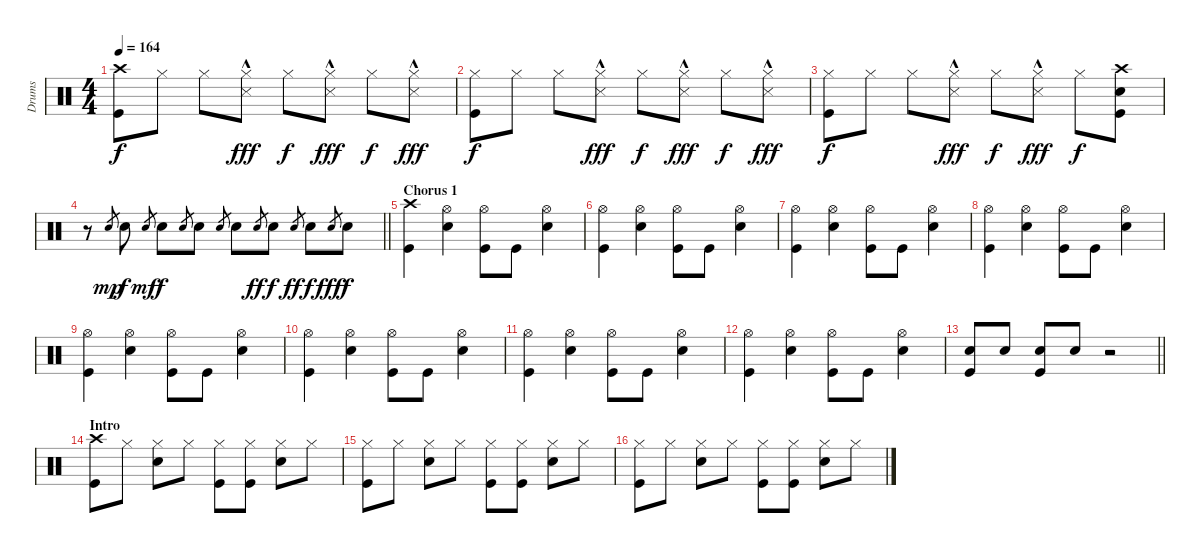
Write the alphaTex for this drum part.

\track ("Drums" "Drums") {instrument percussion}
\staff {score}
\articulation defaults
\ts (4 4)
\tempo 164
\clef neutral
\ks c
("Crash high (hit)" "Kick (hit)").8{dy f} "Hi-Hat (closed)".8 "Hi-Hat (closed)".8 ("Hi-Hat (closed)" "Snare (side stick) 3"{hac}).8{dy fff} "Hi-Hat (closed)".8{dy f} ("Hi-Hat (closed)" "Snare (side stick) 3"{hac}).8{dy fff} "Hi-Hat (closed)".8{dy f} ("Hi-Hat (closed)" "Snare (side stick) 3"{hac}).8{dy fff} |
("Hi-Hat (closed)" "Kick (hit)").8{dy f} "Hi-Hat (closed)".8 "Hi-Hat (closed)".8 ("Hi-Hat (closed)" "Snare (side stick) 3"{hac}).8{dy fff} "Hi-Hat (closed)".8{dy f} ("Hi-Hat (closed)" "Snare (side stick) 3"{hac}).8{dy fff} "Hi-Hat (closed)".8{dy f} ("Hi-Hat (closed)" "Snare (side stick) 3"{hac}).8{dy fff} |
("Hi-Hat (closed)" "Kick (hit)").8{dy f} "Hi-Hat (closed)".8 "Hi-Hat (closed)".8 ("Hi-Hat (closed)" "Snare (side stick) 3"{hac}).8{dy fff} "Hi-Hat (closed)".8{dy f} ("Hi-Hat (closed)" "Snare (side stick) 3"{hac}).8{dy fff} "Hi-Hat (closed)".8{dy f} ("Kick (hit)" "Snare (hit) 2" "Crash high (hit)").8 |
\barLineRight lightlight
r.8 "Snare (hit) 2".8{gr dy mp} "Snare (hit) 2".8{dy f} "Snare (hit) 2".8{gr dy mf} "Snare (hit) 2".8{dy f} "Snare (hit) 2".8{gr} "Snare (hit) 2".8 "Snare (hit) 2".8{gr} "Snare (hit) 2".8 "Snare (hit) 2".8{gr dy ff} "Snare (hit) 2".8{dy f} "Snare (hit) 2".8{gr dy ff} "Snare (hit) 2".8{dy f} "Snare (hit) 2".8{gr dy fff} "Snare (hit) 2".8{dy f} |
\section ("" "Chorus 1")
("Crash high (hit)" "Kick (hit)").4 ("Hi-Hat (open)" "Snare (hit) 2").4 ("Kick (hit)" "Hi-Hat (open)").8 "Kick (hit)".8 ("Hi-Hat (open)" "Snare (hit) 2").4 |
("Hi-Hat (open)" "Kick (hit)").4 ("Hi-Hat (open)" "Snare (hit) 2").4 ("Kick (hit)" "Hi-Hat (open)").8 "Kick (hit)".8 ("Hi-Hat (open)" "Snare (hit) 2").4 |
("Hi-Hat (open)" "Kick (hit)").4 ("Hi-Hat (open)" "Snare (hit) 2").4 ("Kick (hit)" "Hi-Hat (open)").8 "Kick (hit)".8 ("Hi-Hat (open)" "Snare (hit) 2").4 |
("Hi-Hat (open)" "Kick (hit)").4 ("Hi-Hat (open)" "Snare (hit) 2").4 ("Kick (hit)" "Hi-Hat (open)").8 "Kick (hit)".8 ("Hi-Hat (open)" "Snare (hit) 2").4 |
("Hi-Hat (open)" "Kick (hit)").4 ("Hi-Hat (open)" "Snare (hit) 2").4 ("Kick (hit)" "Hi-Hat (open)").8 "Kick (hit)".8 ("Hi-Hat (open)" "Snare (hit) 2").4 |
("Hi-Hat (open)" "Kick (hit)").4 ("Hi-Hat (open)" "Snare (hit) 2").4 ("Kick (hit)" "Hi-Hat (open)").8 "Kick (hit)".8 ("Hi-Hat (open)" "Snare (hit) 2").4 |
("Hi-Hat (open)" "Kick (hit)").4 ("Hi-Hat (open)" "Snare (hit) 2").4 ("Kick (hit)" "Hi-Hat (open)").8 "Kick (hit)".8 ("Hi-Hat (open)" "Snare (hit) 2").4 |
("Hi-Hat (open)" "Kick (hit)").4 ("Hi-Hat (open)" "Snare (hit) 2").4 ("Kick (hit)" "Hi-Hat (open)").8 "Kick (hit)".8 ("Hi-Hat (open)" "Snare (hit) 2").4 |
\barLineRight lightlight
("Snare (hit) 2" "Kick (hit)").8 "Snare (hit) 2".8 ("Snare (hit) 2" "Kick (hit)").8 "Snare (hit) 2".8 r.2 |
\section ("" "Intro")
("Crash high (hit)" "Kick (hit)").8 "Hi-Hat (closed)".8 ("Hi-Hat (closed)" "Snare (hit) 2").8 "Hi-Hat (closed)".8 ("Hi-Hat (closed)" "Kick (hit)").8 ("Hi-Hat (closed)" "Kick (hit)").8 ("Hi-Hat (closed)" "Snare (hit) 2").8 "Hi-Hat (closed)".8 |
("Hi-Hat (closed)" "Kick (hit)").8 "Hi-Hat (closed)".8 ("Hi-Hat (closed)" "Snare (hit) 2").8 "Hi-Hat (closed)".8 ("Hi-Hat (closed)" "Kick (hit)").8 ("Hi-Hat (closed)" "Kick (hit)").8 ("Hi-Hat (closed)" "Snare (hit) 2").8 "Hi-Hat (closed)".8 |
("Hi-Hat (closed)" "Kick (hit)").8 "Hi-Hat (closed)".8 ("Hi-Hat (closed)" "Snare (hit) 2").8 "Hi-Hat (closed)".8 ("Hi-Hat (closed)" "Kick (hit)").8 ("Hi-Hat (closed)" "Kick (hit)").8 ("Hi-Hat (closed)" "Snare (hit) 2").8 "Hi-Hat (closed)".8
